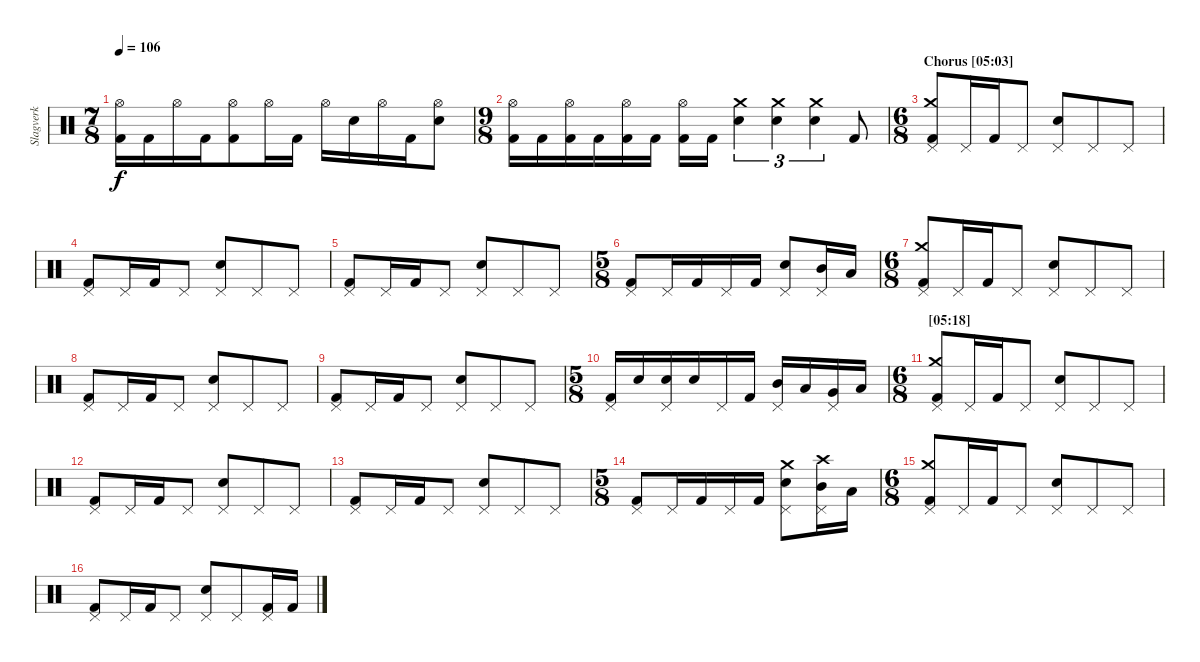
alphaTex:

\track ("Slagverk" "Slagverk") {instrument percussion}
\staff {score}
\articulation defaults
\ts (7 8)
\tempo 106
\clef neutral
\ks c
("Hi-Hat (open)" "Kick (hit) 2").16{dy f} "Kick (hit) 2".16 "Hi-Hat (open)".16 "Kick (hit) 2".16 ("Hi-Hat (open)" "Kick (hit) 2").8 "Hi-Hat (open)".16 "Kick (hit) 2".16 "Hi-Hat (open)".16 "Electric Snare (hit)".16 "Hi-Hat (open)".16 "Kick (hit) 2".16 ("Hi-Hat (open)" "Electric Snare (hit)").8 |
\ts (9 8)
("Hi-Hat (open)" "Kick (hit) 2").16 "Kick (hit) 2".16 ("Hi-Hat (open)" "Kick (hit) 2").16 "Kick (hit) 2".16 ("Hi-Hat (open)" "Kick (hit) 2").16 "Kick (hit) 2".16 ("Hi-Hat (open)" "Kick (hit) 2").16 "Kick (hit) 2".16 ("Crash medium (hit)" "Electric Snare (hit)").4{tu (3 2)} ("Crash medium (hit)" "Electric Snare (hit)").4{tu (3 2)} ("Crash medium (hit)" "Electric Snare (hit)").4{tu (3 2)} "Kick (hit) 2".8 |
\ts (6 8)
\section ("" "Chorus [05:03]")
("Pedal Hi-Hat (hit)" "Crash medium (hit)" "Kick (hit) 2").8 "Pedal Hi-Hat (hit)".16 "Kick (hit) 2".16 "Pedal Hi-Hat (hit)".8 ("Pedal Hi-Hat (hit)" "Electric Snare (hit)").8 "Pedal Hi-Hat (hit)".8 "Pedal Hi-Hat (hit)".8 |
("Pedal Hi-Hat (hit)" "Kick (hit) 2").8 "Pedal Hi-Hat (hit)".16 "Kick (hit) 2".16 "Pedal Hi-Hat (hit)".8 ("Pedal Hi-Hat (hit)" "Electric Snare (hit)").8 "Pedal Hi-Hat (hit)".8 "Pedal Hi-Hat (hit)".8 |
("Pedal Hi-Hat (hit)" "Kick (hit) 2").8 "Pedal Hi-Hat (hit)".16 "Kick (hit) 2".16 "Pedal Hi-Hat (hit)".8 ("Pedal Hi-Hat (hit)" "Electric Snare (hit)").8 "Pedal Hi-Hat (hit)".8 "Pedal Hi-Hat (hit)".8 |
\ts (5 8)
("Pedal Hi-Hat (hit)" "Kick (hit) 2").8 "Pedal Hi-Hat (hit)".16 "Kick (hit) 2".16 "Pedal Hi-Hat (hit)".16 "Kick (hit) 2".16 ("Pedal Hi-Hat (hit)" "Electric Snare (hit)").8 ("Pedal Hi-Hat (hit)" "Mid Tom (hit)").16 "Low Tom (hit)".16 |
\ts (6 8)
\section ("" "")
("Pedal Hi-Hat (hit)" "Crash medium (hit)" "Kick (hit) 2").8 "Pedal Hi-Hat (hit)".16 "Kick (hit) 2".16 "Pedal Hi-Hat (hit)".8 ("Pedal Hi-Hat (hit)" "Electric Snare (hit)").8 "Pedal Hi-Hat (hit)".8 "Pedal Hi-Hat (hit)".8 |
("Pedal Hi-Hat (hit)" "Kick (hit) 2").8 "Pedal Hi-Hat (hit)".16 "Kick (hit) 2".16 "Pedal Hi-Hat (hit)".8 ("Pedal Hi-Hat (hit)" "Electric Snare (hit)").8 "Pedal Hi-Hat (hit)".8 "Pedal Hi-Hat (hit)".8 |
("Pedal Hi-Hat (hit)" "Kick (hit) 2").8 "Pedal Hi-Hat (hit)".16 "Kick (hit) 2".16 "Pedal Hi-Hat (hit)".8 ("Pedal Hi-Hat (hit)" "Electric Snare (hit)").8 "Pedal Hi-Hat (hit)".8 "Pedal Hi-Hat (hit)".8 |
\ts (5 8)
("Pedal Hi-Hat (hit)" "Kick (hit) 2").16 "Electric Snare (hit)".16 ("Pedal Hi-Hat (hit)" "Electric Snare (hit)").16 "Electric Snare (hit)".16 "Pedal Hi-Hat (hit)".16 "Kick (hit) 2".16 ("Pedal Hi-Hat (hit)" "Mid Tom (hit)").16 "Low Tom (hit)".16 ("Pedal Hi-Hat (hit)" "Very Low Tom (hit)").16 "Low Floor Tom (hit)".16 |
\ts (6 8)
\section ("" "[05:18]")
("Pedal Hi-Hat (hit)" "Crash medium (hit)" "Kick (hit) 2").8 "Pedal Hi-Hat (hit)".16 "Kick (hit) 2".16 "Pedal Hi-Hat (hit)".8 ("Pedal Hi-Hat (hit)" "Electric Snare (hit)").8 "Pedal Hi-Hat (hit)".8 "Pedal Hi-Hat (hit)".8 |
("Pedal Hi-Hat (hit)" "Kick (hit) 2").8 "Pedal Hi-Hat (hit)".16 "Kick (hit) 2".16 "Pedal Hi-Hat (hit)".8 ("Pedal Hi-Hat (hit)" "Electric Snare (hit)").8 "Pedal Hi-Hat (hit)".8 "Pedal Hi-Hat (hit)".8 |
("Pedal Hi-Hat (hit)" "Kick (hit) 2").8 "Pedal Hi-Hat (hit)".16 "Kick (hit) 2".16 "Pedal Hi-Hat (hit)".8 ("Pedal Hi-Hat (hit)" "Electric Snare (hit)").8 "Pedal Hi-Hat (hit)".8 "Pedal Hi-Hat (hit)".8 |
\ts (5 8)
("Pedal Hi-Hat (hit)" "Kick (hit) 2").8 "Pedal Hi-Hat (hit)".16 "Kick (hit) 2".16 "Pedal Hi-Hat (hit)".16 "Kick (hit) 2".16 ("Pedal Hi-Hat (hit)" "Crash medium (hit)" "Electric Snare (hit)").8 ("Pedal Hi-Hat (hit)" "Crash high (hit)" "Mid Tom (hit)").16 "Low Tom (hit)".16 |
\ts (6 8)
\section ("" "")
("Pedal Hi-Hat (hit)" "Crash medium (hit)" "Kick (hit) 2").8 "Pedal Hi-Hat (hit)".16 "Kick (hit) 2".16 "Pedal Hi-Hat (hit)".8 ("Pedal Hi-Hat (hit)" "Electric Snare (hit)").8 "Pedal Hi-Hat (hit)".8 "Pedal Hi-Hat (hit)".8 |
("Pedal Hi-Hat (hit)" "Kick (hit) 2").8 "Pedal Hi-Hat (hit)".16 "Kick (hit) 2".16 "Pedal Hi-Hat (hit)".8 ("Pedal Hi-Hat (hit)" "Electric Snare (hit)").8 "Pedal Hi-Hat (hit)".8 ("Pedal Hi-Hat (hit)" "Kick (hit) 2").16 "Kick (hit) 2".16
